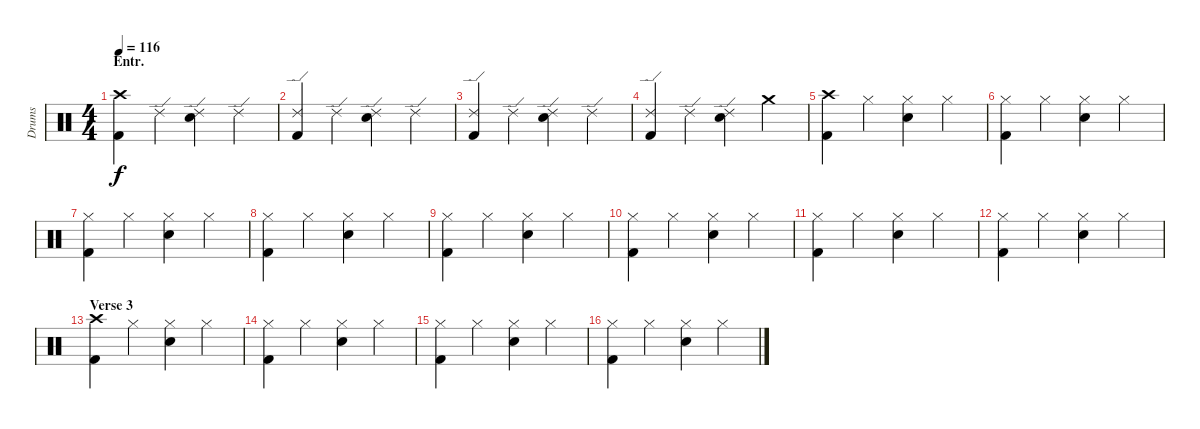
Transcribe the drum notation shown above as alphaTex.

\track ("Drums" "Drums") {instrument percussion}
\staff {score}
\articulation defaults
\ts (4 4)
\section ("" "Entr.")
\tempo 116
\clef neutral
\ks c
("Crash high (hit)" "Kick (hit) 2").4{dy f} "Ride (edge) 2".4 ("Ride (edge) 2" "Snare (hit) 2").4 "Ride (edge) 2".4 |
("Ride (edge) 2" "Kick (hit) 2").4 "Ride (edge) 2".4 ("Ride (edge) 2" "Snare (hit) 2").4 "Ride (edge) 2".4 |
("Ride (edge) 2" "Kick (hit) 2").4 "Ride (edge) 2".4 ("Ride (edge) 2" "Snare (hit) 2").4 "Ride (edge) 2".4 |
("Ride (edge) 2" "Kick (hit) 2").4 "Ride (edge) 2".4 ("Ride (edge) 2" "Snare (hit) 2").4 "Crash medium (hit)".4 |
("Crash high (hit)" "Kick (hit) 2").4 "Hi-Hat (closed)".4 ("Hi-Hat (closed)" "Snare (hit) 2").4 "Hi-Hat (closed)".4 |
("Hi-Hat (closed)" "Kick (hit) 2").4 "Hi-Hat (closed)".4 ("Hi-Hat (closed)" "Snare (hit) 2").4 "Hi-Hat (closed)".4 |
("Hi-Hat (closed)" "Kick (hit) 2").4 "Hi-Hat (closed)".4 ("Hi-Hat (closed)" "Snare (hit) 2").4 "Hi-Hat (closed)".4 |
("Hi-Hat (closed)" "Kick (hit) 2").4 "Hi-Hat (closed)".4 ("Hi-Hat (closed)" "Snare (hit) 2").4 "Hi-Hat (closed)".4 |
("Hi-Hat (closed)" "Kick (hit) 2").4 "Hi-Hat (closed)".4 ("Hi-Hat (closed)" "Snare (hit) 2").4 "Hi-Hat (closed)".4 |
("Hi-Hat (closed)" "Kick (hit) 2").4 "Hi-Hat (closed)".4 ("Hi-Hat (closed)" "Snare (hit) 2").4 "Hi-Hat (closed)".4 |
("Hi-Hat (closed)" "Kick (hit) 2").4 "Hi-Hat (closed)".4 ("Hi-Hat (closed)" "Snare (hit) 2").4 "Hi-Hat (closed)".4 |
("Hi-Hat (closed)" "Kick (hit) 2").4 "Hi-Hat (closed)".4 ("Hi-Hat (closed)" "Snare (hit) 2").4 "Hi-Hat (closed)".4 |
\section ("" "Verse 3")
("Crash high (hit)" "Kick (hit) 2").4 "Hi-Hat (closed)".4 ("Hi-Hat (closed)" "Snare (hit) 2").4 "Hi-Hat (closed)".4 |
("Hi-Hat (closed)" "Kick (hit) 2").4 "Hi-Hat (closed)".4 ("Hi-Hat (closed)" "Snare (hit) 2").4 "Hi-Hat (closed)".4 |
("Hi-Hat (closed)" "Kick (hit) 2").4 "Hi-Hat (closed)".4 ("Hi-Hat (closed)" "Snare (hit) 2").4 "Hi-Hat (closed)".4 |
("Hi-Hat (closed)" "Kick (hit) 2").4 "Hi-Hat (closed)".4 ("Hi-Hat (closed)" "Snare (hit) 2").4 "Hi-Hat (closed)".4
